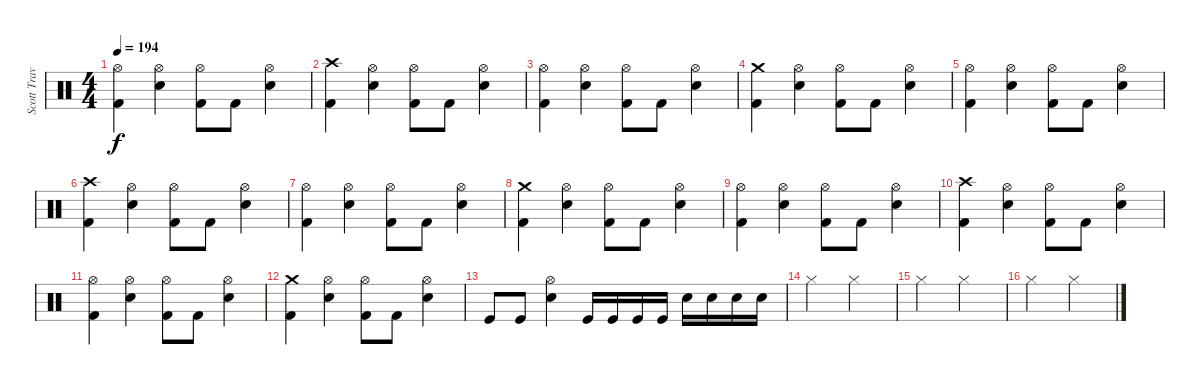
\track ("Scott Travis" "Scott Trav") {instrument percussion}
\staff {score}
\articulation defaults
\ts (4 4)
\tempo 194
\clef neutral
\ks c
("Kick (hit) 2" "Hi-Hat (open)").4{dy f} ("Hi-Hat (open)" "Snare (hit) 2").4 ("Hi-Hat (open)" "Kick (hit) 2").8 "Kick (hit) 2".8 ("Snare (hit) 2" "Hi-Hat (open)").4 |
("Kick (hit) 2" "Crash high (hit)").4 ("Hi-Hat (open)" "Snare (hit) 2").4 ("Hi-Hat (open)" "Kick (hit) 2").8 "Kick (hit) 2".8 ("Snare (hit) 2" "Hi-Hat (open)").4 |
("Kick (hit) 2" "Hi-Hat (open)").4 ("Hi-Hat (open)" "Snare (hit) 2").4 ("Hi-Hat (open)" "Kick (hit) 2").8 "Kick (hit) 2".8 ("Snare (hit) 2" "Hi-Hat (open)").4 |
("Kick (hit) 2" "Crash medium (hit)").4 ("Hi-Hat (open)" "Snare (hit) 2").4 ("Hi-Hat (open)" "Kick (hit) 2").8 "Kick (hit) 2".8 ("Snare (hit) 2" "Hi-Hat (open)").4 |
("Kick (hit) 2" "Hi-Hat (open)").4 ("Hi-Hat (open)" "Snare (hit) 2").4 ("Hi-Hat (open)" "Kick (hit) 2").8 "Kick (hit) 2".8 ("Snare (hit) 2" "Hi-Hat (open)").4 |
("Kick (hit) 2" "Crash high (hit)").4 ("Hi-Hat (open)" "Snare (hit) 2").4 ("Hi-Hat (open)" "Kick (hit) 2").8 "Kick (hit) 2".8 ("Snare (hit) 2" "Hi-Hat (open)").4 |
("Kick (hit) 2" "Hi-Hat (open)").4 ("Hi-Hat (open)" "Snare (hit) 2").4 ("Hi-Hat (open)" "Kick (hit) 2").8 "Kick (hit) 2".8 ("Snare (hit) 2" "Hi-Hat (open)").4 |
("Kick (hit) 2" "Crash medium (hit)").4 ("Hi-Hat (open)" "Snare (hit) 2").4 ("Hi-Hat (open)" "Kick (hit) 2").8 "Kick (hit) 2".8 ("Snare (hit) 2" "Hi-Hat (open)").4 |
("Kick (hit) 2" "Hi-Hat (open)").4 ("Hi-Hat (open)" "Snare (hit) 2").4 ("Hi-Hat (open)" "Kick (hit) 2").8 "Kick (hit) 2".8 ("Snare (hit) 2" "Hi-Hat (open)").4 |
("Kick (hit) 2" "Crash high (hit)").4 ("Hi-Hat (open)" "Snare (hit) 2").4 ("Hi-Hat (open)" "Kick (hit) 2").8 "Kick (hit) 2".8 ("Snare (hit) 2" "Hi-Hat (open)").4 |
("Kick (hit) 2" "Hi-Hat (open)").4 ("Hi-Hat (open)" "Snare (hit) 2").4 ("Hi-Hat (open)" "Kick (hit) 2").8 "Kick (hit) 2".8 ("Snare (hit) 2" "Hi-Hat (open)").4 |
("Kick (hit) 2" "Crash medium (hit)").4 ("Hi-Hat (open)" "Snare (hit) 2").4 ("Hi-Hat (open)" "Kick (hit) 2").8 "Kick (hit) 2".8 ("Snare (hit) 2" "Hi-Hat (open)").4 |
"Kick (hit)".8 "Kick (hit)".8 ("Hi-Hat (open)" "Snare (hit) 2").4 "Kick (hit)".16 "Kick (hit)".16 "Kick (hit)".16 "Kick (hit)".16 "Snare (hit) 2".16 "Snare (hit) 2".16 "Snare (hit) 2".16 "Snare (hit) 2".16 |
"Hi-Hat (closed)".2 "Hi-Hat (closed)".2 |
"Hi-Hat (closed)".2 "Hi-Hat (closed)".2 |
"Hi-Hat (closed)".2 "Hi-Hat (closed)".2
